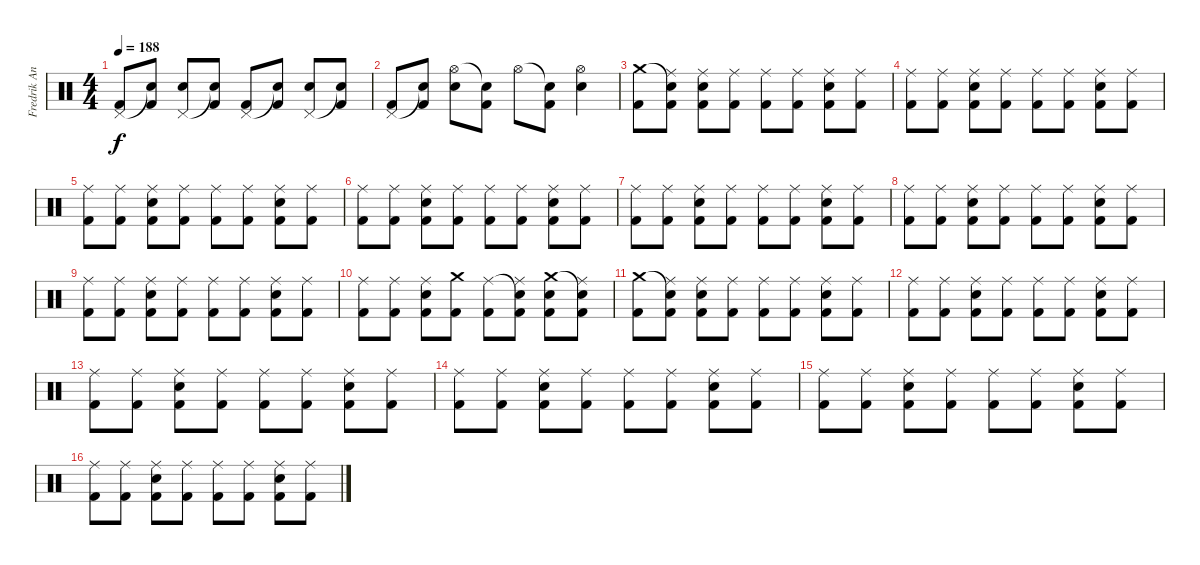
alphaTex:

\track ("Fredrik Andersson" "Fredrik An") {instrument percussion}
\staff {score}
\articulation defaults
\ts (4 4)
\tempo 188
\clef neutral
\ks c
("Pedal Hi-Hat (hit)" "Kick (hit) 2").8{dy f} ("Snare (hit)"{t} "Kick (hit) 2").8 ("Pedal Hi-Hat (hit)" "Snare (hit) 2").8 ("Snare (hit)"{t} "Kick (hit) 2").8 ("Pedal Hi-Hat (hit)" "Kick (hit) 2").8 ("Snare (hit)"{t} "Kick (hit) 2").8 ("Pedal Hi-Hat (hit)" "Snare (hit) 2").8 ("Snare (hit)"{t} "Kick (hit) 2").8 |
("Pedal Hi-Hat (hit)" "Kick (hit) 2").8 ("Snare (hit)"{t} "Kick (hit) 2").8 ("Hi-Hat (open)" "Snare (hit) 2").8 ("Snare (hit)"{t} "Kick (hit) 2").8 "Hi-Hat (open)".8 ("Snare (hit)"{t} "Kick (hit) 2").8 ("Hi-Hat (open)" "Snare (hit) 2").4 |
("Crash medium (hit)" "Kick (hit) 2").8 ("Snare (hit)"{t} "Ride (middle)" "Kick (hit) 2").8 ("Ride (middle)" "Snare (hit) 2" "Kick (hit) 2").8 ("Ride (middle)" "Kick (hit) 2").8 ("Ride (middle)" "Kick (hit) 2").8 ("Ride (middle)" "Kick (hit) 2").8 ("Ride (middle)" "Snare (hit) 2" "Kick (hit) 2").8 ("Ride (middle)" "Kick (hit) 2").8 |
("Ride (middle)" "Kick (hit) 2").8 ("Ride (middle)" "Kick (hit) 2").8 ("Ride (middle)" "Snare (hit) 2" "Kick (hit) 2").8 ("Ride (middle)" "Kick (hit) 2").8 ("Ride (middle)" "Kick (hit) 2").8 ("Ride (middle)" "Kick (hit) 2").8 ("Ride (middle)" "Snare (hit) 2" "Kick (hit) 2").8 ("Ride (middle)" "Kick (hit) 2").8 |
("Ride (middle)" "Kick (hit) 2").8 ("Ride (middle)" "Kick (hit) 2").8 ("Ride (middle)" "Snare (hit) 2" "Kick (hit) 2").8 ("Ride (middle)" "Kick (hit) 2").8 ("Ride (middle)" "Kick (hit) 2").8 ("Ride (middle)" "Kick (hit) 2").8 ("Ride (middle)" "Snare (hit) 2" "Kick (hit) 2").8 ("Ride (middle)" "Kick (hit) 2").8 |
("Ride (middle)" "Kick (hit) 2").8 ("Ride (middle)" "Kick (hit) 2").8 ("Ride (middle)" "Snare (hit) 2" "Kick (hit) 2").8 ("Ride (middle)" "Kick (hit) 2").8 ("Ride (middle)" "Kick (hit) 2").8 ("Ride (middle)" "Kick (hit) 2").8 ("Ride (middle)" "Snare (hit) 2" "Kick (hit) 2").8 ("Ride (middle)" "Kick (hit) 2").8 |
("Ride (middle)" "Kick (hit) 2").8 ("Ride (middle)" "Kick (hit) 2").8 ("Ride (middle)" "Snare (hit) 2" "Kick (hit) 2").8 ("Ride (middle)" "Kick (hit) 2").8 ("Ride (middle)" "Kick (hit) 2").8 ("Ride (middle)" "Kick (hit) 2").8 ("Ride (middle)" "Snare (hit) 2" "Kick (hit) 2").8 ("Ride (middle)" "Kick (hit) 2").8 |
("Ride (middle)" "Kick (hit) 2").8 ("Ride (middle)" "Kick (hit) 2").8 ("Ride (middle)" "Snare (hit) 2" "Kick (hit) 2").8 ("Ride (middle)" "Kick (hit) 2").8 ("Ride (middle)" "Kick (hit) 2").8 ("Ride (middle)" "Kick (hit) 2").8 ("Ride (middle)" "Snare (hit) 2" "Kick (hit) 2").8 ("Ride (middle)" "Kick (hit) 2").8 |
("Ride (middle)" "Kick (hit) 2").8 ("Ride (middle)" "Kick (hit) 2").8 ("Ride (middle)" "Snare (hit) 2" "Kick (hit) 2").8 ("Ride (middle)" "Kick (hit) 2").8 ("Ride (middle)" "Kick (hit) 2").8 ("Ride (middle)" "Kick (hit) 2").8 ("Ride (middle)" "Snare (hit) 2" "Kick (hit) 2").8 ("Ride (middle)" "Kick (hit) 2").8 |
("Ride (middle)" "Kick (hit) 2").8 ("Ride (middle)" "Kick (hit) 2").8 ("Ride (middle)" "Snare (hit) 2" "Kick (hit) 2").8 ("Crash medium (hit)" "Kick (hit) 2").8 ("Ride (middle)" "Kick (hit) 2").8 ("Snare (hit)"{t} "Ride (middle)" "Kick (hit) 2").8 ("Crash medium (hit)" "Snare (hit) 2" "Kick (hit) 2").8 ("Snare (hit)"{t} "Ride (middle)" "Kick (hit) 2").8 |
("Crash medium (hit)" "Kick (hit) 2").8 ("Snare (hit)"{t} "Ride (middle)" "Kick (hit) 2").8 ("Ride (middle)" "Snare (hit) 2" "Kick (hit) 2").8 ("Ride (middle)" "Kick (hit) 2").8 ("Ride (middle)" "Kick (hit) 2").8 ("Ride (middle)" "Kick (hit) 2").8 ("Ride (middle)" "Snare (hit) 2" "Kick (hit) 2").8 ("Ride (middle)" "Kick (hit) 2").8 |
("Ride (middle)" "Kick (hit) 2").8 ("Ride (middle)" "Kick (hit) 2").8 ("Ride (middle)" "Snare (hit) 2" "Kick (hit) 2").8 ("Ride (middle)" "Kick (hit) 2").8 ("Ride (middle)" "Kick (hit) 2").8 ("Ride (middle)" "Kick (hit) 2").8 ("Ride (middle)" "Snare (hit) 2" "Kick (hit) 2").8 ("Ride (middle)" "Kick (hit) 2").8 |
("Ride (middle)" "Kick (hit) 2").8 ("Ride (middle)" "Kick (hit) 2").8 ("Ride (middle)" "Snare (hit) 2" "Kick (hit) 2").8 ("Ride (middle)" "Kick (hit) 2").8 ("Ride (middle)" "Kick (hit) 2").8 ("Ride (middle)" "Kick (hit) 2").8 ("Ride (middle)" "Snare (hit) 2" "Kick (hit) 2").8 ("Ride (middle)" "Kick (hit) 2").8 |
("Ride (middle)" "Kick (hit) 2").8 ("Ride (middle)" "Kick (hit) 2").8 ("Ride (middle)" "Snare (hit) 2" "Kick (hit) 2").8 ("Ride (middle)" "Kick (hit) 2").8 ("Ride (middle)" "Kick (hit) 2").8 ("Ride (middle)" "Kick (hit) 2").8 ("Ride (middle)" "Snare (hit) 2" "Kick (hit) 2").8 ("Ride (middle)" "Kick (hit) 2").8 |
("Ride (middle)" "Kick (hit) 2").8 ("Ride (middle)" "Kick (hit) 2").8 ("Ride (middle)" "Snare (hit) 2" "Kick (hit) 2").8 ("Ride (middle)" "Kick (hit) 2").8 ("Ride (middle)" "Kick (hit) 2").8 ("Ride (middle)" "Kick (hit) 2").8 ("Ride (middle)" "Snare (hit) 2" "Kick (hit) 2").8 ("Ride (middle)" "Kick (hit) 2").8 |
("Ride (middle)" "Kick (hit) 2").8 ("Ride (middle)" "Kick (hit) 2").8 ("Ride (middle)" "Snare (hit) 2" "Kick (hit) 2").8 ("Ride (middle)" "Kick (hit) 2").8 ("Ride (middle)" "Kick (hit) 2").8 ("Ride (middle)" "Kick (hit) 2").8 ("Ride (middle)" "Snare (hit) 2" "Kick (hit) 2").8 ("Ride (middle)" "Kick (hit) 2").8
